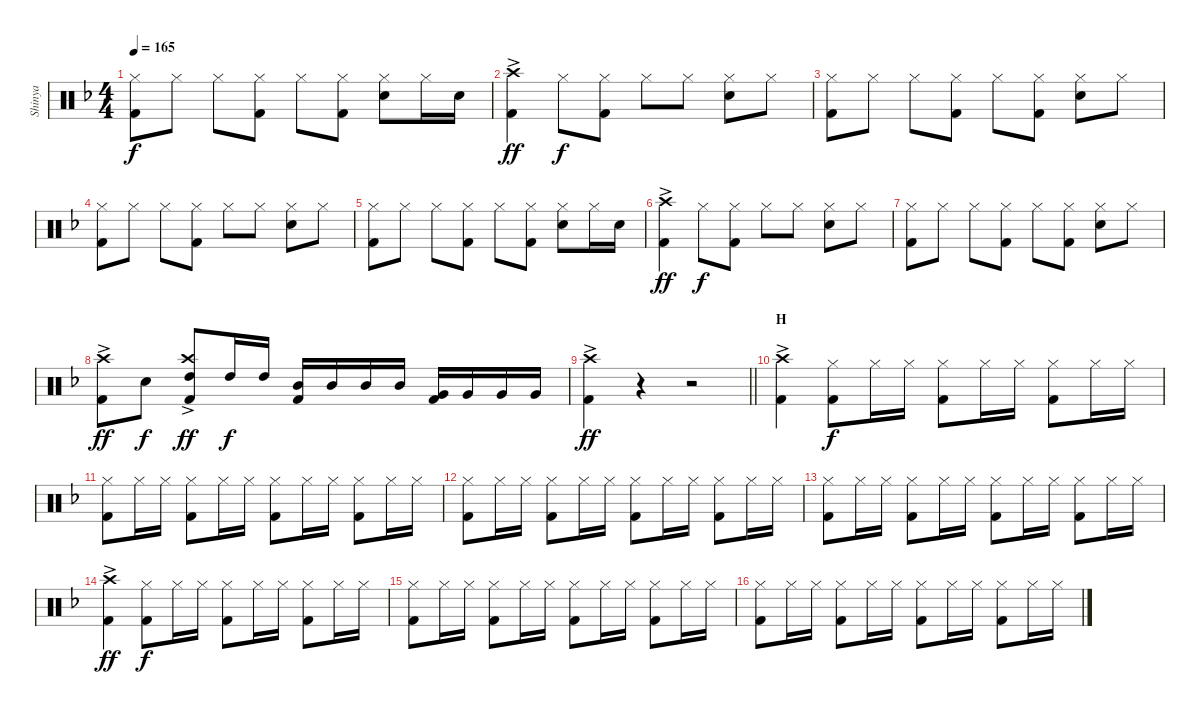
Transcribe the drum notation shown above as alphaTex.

\track ("Shinya" "Shinya") {instrument percussion}
\staff {score}
\articulation defaults
\ts (4 4)
\tempo 165
\clef neutral
\ks dminor
("Hi-Hat (closed)" "Kick (hit) 2").8{dy f} "Hi-Hat (closed)".8 "Hi-Hat (closed)".8 ("Hi-Hat (closed)" "Kick (hit) 2").8 "Hi-Hat (closed)".8 ("Hi-Hat (closed)" "Kick (hit) 2").8 ("Hi-Hat (closed)" "Snare (hit) 2").8 "Hi-Hat (closed)".16 "Snare (hit) 2".16 |
("Crash high (hit)"{ac} "Kick (hit) 2").4{dy ff} "Hi-Hat (closed)".8{dy f} ("Hi-Hat (closed)" "Kick (hit) 2").8 "Hi-Hat (closed)".8 "Hi-Hat (closed)".8 ("Hi-Hat (closed)" "Snare (hit) 2").8 "Hi-Hat (closed)".8 |
("Hi-Hat (closed)" "Kick (hit) 2").8 "Hi-Hat (closed)".8 "Hi-Hat (closed)".8 ("Hi-Hat (closed)" "Kick (hit) 2").8 "Hi-Hat (closed)".8 ("Hi-Hat (closed)" "Kick (hit) 2").8 ("Hi-Hat (closed)" "Snare (hit) 2").8 "Hi-Hat (closed)".8 |
("Hi-Hat (closed)" "Kick (hit) 2").8 "Hi-Hat (closed)".8 "Hi-Hat (closed)".8 ("Hi-Hat (closed)" "Kick (hit) 2").8 "Hi-Hat (closed)".8 "Hi-Hat (closed)".8 ("Hi-Hat (closed)" "Snare (hit) 2").8 "Hi-Hat (closed)".8 |
("Hi-Hat (closed)" "Kick (hit) 2").8 "Hi-Hat (closed)".8 "Hi-Hat (closed)".8 ("Hi-Hat (closed)" "Kick (hit) 2").8 "Hi-Hat (closed)".8 ("Hi-Hat (closed)" "Kick (hit) 2").8 ("Hi-Hat (closed)" "Snare (hit) 2").8 "Hi-Hat (closed)".16 "Snare (hit) 2".16 |
("Crash high (hit)"{ac} "Kick (hit) 2").4{dy ff} "Hi-Hat (closed)".8{dy f} ("Hi-Hat (closed)" "Kick (hit) 2").8 "Hi-Hat (closed)".8 "Hi-Hat (closed)".8 ("Hi-Hat (closed)" "Snare (hit) 2").8 "Hi-Hat (closed)".8 |
("Hi-Hat (closed)" "Kick (hit) 2").8 "Hi-Hat (closed)".8 "Hi-Hat (closed)".8 ("Hi-Hat (closed)" "Kick (hit) 2").8 "Hi-Hat (closed)".8 ("Hi-Hat (closed)" "Kick (hit) 2").8 ("Hi-Hat (closed)" "Snare (hit) 2").8 "Hi-Hat (closed)".8 |
("Crash high (hit)"{ac} "Kick (hit) 2").8{dy ff} "Snare (hit) 2".8{dy f} ("Crash high (hit)"{ac} "High Tom (hit)" "Kick (hit) 2").8{dy ff} "High Tom (hit)".16{dy f} "High Tom (hit)".16 ("Mid Tom (hit)" "Kick (hit) 2").16 "Mid Tom (hit)".16 "Mid Tom (hit)".16 "Mid Tom (hit)".16 ("Very Low Tom (hit)" "Kick (hit) 2").16 "Very Low Tom (hit)".16 "Very Low Tom (hit)".16 "Very Low Tom (hit)".16 |
\barLineRight lightlight
("Crash high (hit)"{ac} "Kick (hit) 2").4{dy ff} r.4 r.2 |
\section ("" "H")
("Crash high (hit)"{ac} "Kick (hit) 2").4 ("Hi-Hat (closed)" "Kick (hit) 2").8{dy f} "Hi-Hat (closed)".16 "Hi-Hat (closed)".16 ("Hi-Hat (closed)" "Kick (hit) 2").8 "Hi-Hat (closed)".16 "Hi-Hat (closed)".16 ("Hi-Hat (closed)" "Kick (hit) 2").8 "Hi-Hat (closed)".16 "Hi-Hat (closed)".16 |
("Hi-Hat (closed)" "Kick (hit) 2").8 "Hi-Hat (closed)".16 "Hi-Hat (closed)".16 ("Hi-Hat (closed)" "Kick (hit) 2").8 "Hi-Hat (closed)".16 "Hi-Hat (closed)".16 ("Hi-Hat (closed)" "Kick (hit) 2").8 "Hi-Hat (closed)".16 "Hi-Hat (closed)".16 ("Hi-Hat (closed)" "Kick (hit) 2").8 "Hi-Hat (closed)".16 "Hi-Hat (closed)".16 |
("Hi-Hat (closed)" "Kick (hit) 2").8 "Hi-Hat (closed)".16 "Hi-Hat (closed)".16 ("Hi-Hat (closed)" "Kick (hit) 2").8 "Hi-Hat (closed)".16 "Hi-Hat (closed)".16 ("Hi-Hat (closed)" "Kick (hit) 2").8 "Hi-Hat (closed)".16 "Hi-Hat (closed)".16 ("Hi-Hat (closed)" "Kick (hit) 2").8 "Hi-Hat (closed)".16 "Hi-Hat (closed)".16 |
("Hi-Hat (closed)" "Kick (hit) 2").8 "Hi-Hat (closed)".16 "Hi-Hat (closed)".16 ("Hi-Hat (closed)" "Kick (hit) 2").8 "Hi-Hat (closed)".16 "Hi-Hat (closed)".16 ("Hi-Hat (closed)" "Kick (hit) 2").8 "Hi-Hat (closed)".16 "Hi-Hat (closed)".16 ("Hi-Hat (closed)" "Kick (hit) 2").8 "Hi-Hat (closed)".16 "Hi-Hat (closed)".16 |
("Crash high (hit)"{ac} "Kick (hit) 2").4{dy ff} ("Hi-Hat (closed)" "Kick (hit) 2").8{dy f} "Hi-Hat (closed)".16 "Hi-Hat (closed)".16 ("Hi-Hat (closed)" "Kick (hit) 2").8 "Hi-Hat (closed)".16 "Hi-Hat (closed)".16 ("Hi-Hat (closed)" "Kick (hit) 2").8 "Hi-Hat (closed)".16 "Hi-Hat (closed)".16 |
("Hi-Hat (closed)" "Kick (hit) 2").8 "Hi-Hat (closed)".16 "Hi-Hat (closed)".16 ("Hi-Hat (closed)" "Kick (hit) 2").8 "Hi-Hat (closed)".16 "Hi-Hat (closed)".16 ("Hi-Hat (closed)" "Kick (hit) 2").8 "Hi-Hat (closed)".16 "Hi-Hat (closed)".16 ("Hi-Hat (closed)" "Kick (hit) 2").8 "Hi-Hat (closed)".16 "Hi-Hat (closed)".16 |
("Hi-Hat (closed)" "Kick (hit) 2").8 "Hi-Hat (closed)".16 "Hi-Hat (closed)".16 ("Hi-Hat (closed)" "Kick (hit) 2").8 "Hi-Hat (closed)".16 "Hi-Hat (closed)".16 ("Hi-Hat (closed)" "Kick (hit) 2").8 "Hi-Hat (closed)".16 "Hi-Hat (closed)".16 ("Hi-Hat (closed)" "Kick (hit) 2").8 "Hi-Hat (closed)".16 "Hi-Hat (closed)".16
